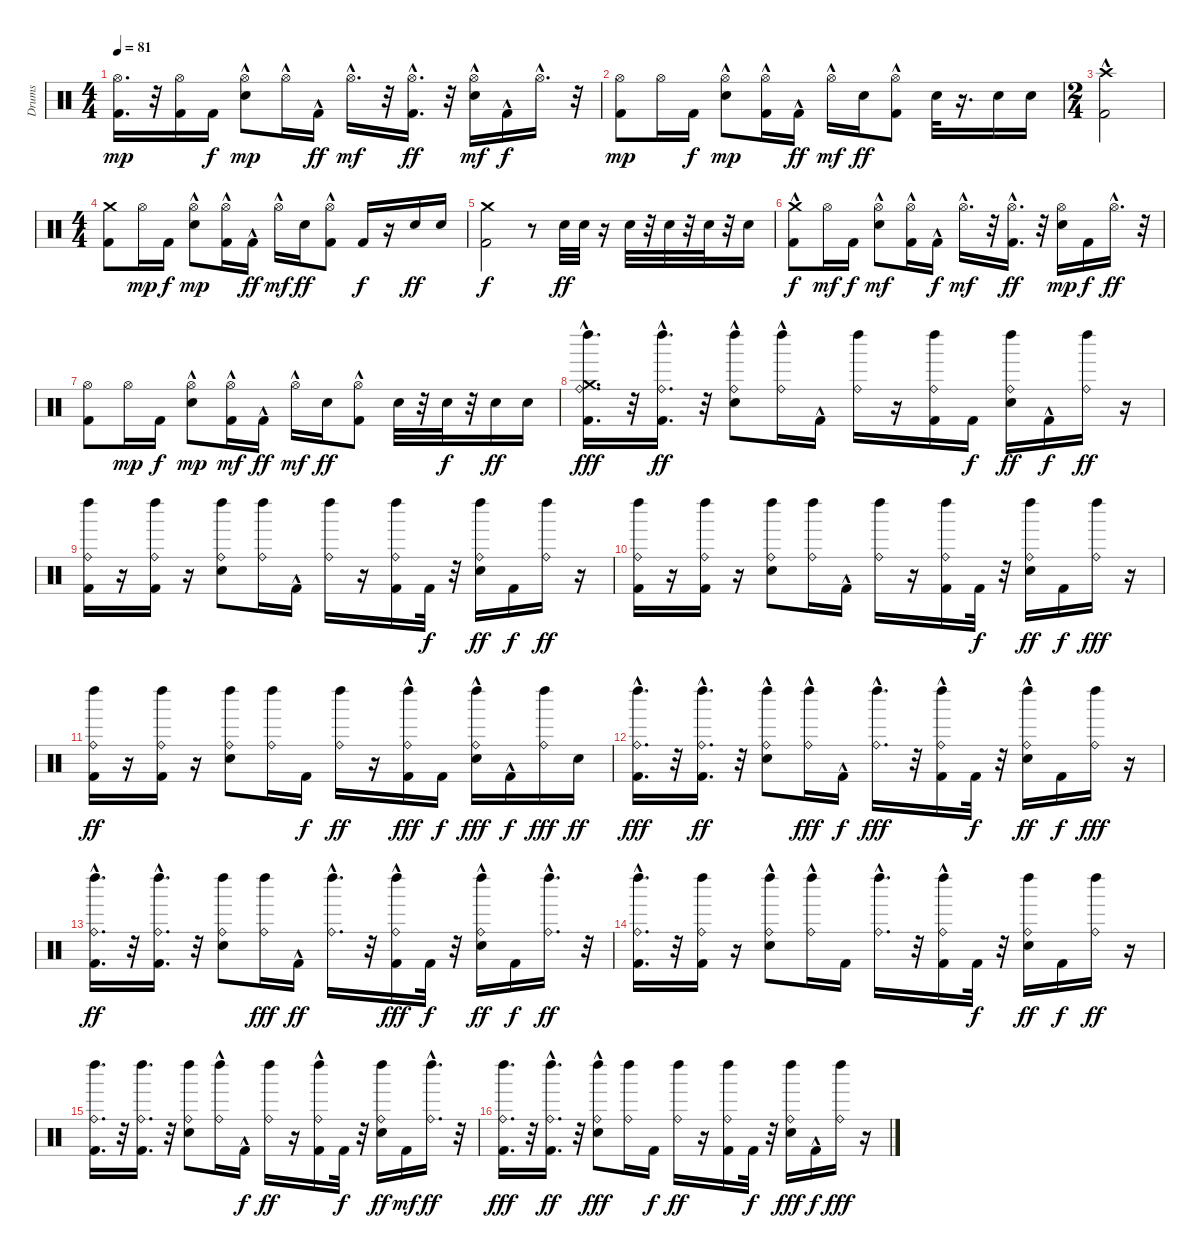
\track ("Drums" "Drums") {instrument percussion}
\staff {score}
\articulation defaults
\ts (4 4)
\tempo 81
\clef neutral
\ks c
("Kick (hit) 2" "Hi-Hat (open)").16{d dy mp} r.32 ("Kick (hit) 2" "Hi-Hat (open)").16 "Kick (hit) 2".16{dy f} ("Electric Snare (hit)" "Hi-Hat (open)"{hac}).8{dy mp} "Hi-Hat (open)"{hac}.16 "Kick (hit) 2"{hac}.16{dy ff} "Hi-Hat (open)"{hac}.16{d dy mf} r.32 ("Kick (hit) 2"{hac} "Hi-Hat (open)"{hac}).16{d dy ff} r.32 ("Electric Snare (hit)" "Hi-Hat (open)"{hac}).16{dy mf} "Kick (hit) 2"{hac}.16{dy f} "Hi-Hat (open)"{hac}.16{d} r.32 |
("Kick (hit) 2" "Hi-Hat (open)").8{dy mp} "Hi-Hat (open)".16 "Kick (hit) 2".16{dy f} ("Electric Snare (hit)" "Hi-Hat (open)"{hac}).8{dy mp} ("Kick (hit) 2" "Hi-Hat (open)"{hac}).16 "Kick (hit) 2"{hac}.16{dy ff} "Hi-Hat (open)"{hac}.16{dy mf} "Electric Snare (hit)".16{dy ff} ("Kick (hit) 2" "Hi-Hat (open)"{hac}).8 "Electric Snare (hit)".32 r.16{d} "Electric Snare (hit)".16 "Electric Snare (hit)".16 |
\ts (2 4)
("Kick (hit) 2"{hac} "Crash high (hit)"{hac}).2 |
\ts (4 4)
("Kick (hit) 2" "Crash medium (hit)").8 "Hi-Hat (open)".16{dy mp} "Kick (hit) 2".16{dy f} ("Electric Snare (hit)" "Hi-Hat (open)"{hac}).8{dy mp} ("Kick (hit) 2" "Hi-Hat (open)"{hac}).16 "Kick (hit) 2"{hac}.16{dy ff} "Hi-Hat (open)"{hac}.16{dy mf} "Electric Snare (hit)".16{dy ff} ("Kick (hit) 2" "Hi-Hat (open)"{hac}).8 "Kick (hit) 2".16{dy f} r.16 "Electric Snare (hit)".16{dy ff} "Electric Snare (hit)".16 |
("Kick (hit) 2" "Crash medium (hit)").2{dy f} r.8 "Electric Snare (hit)".32{dy ff} "Electric Snare (hit)".32 r.16 "Electric Snare (hit)".32 r.32 "Electric Snare (hit)".32 r.32 "Electric Snare (hit)".32 r.32 "Electric Snare (hit)".16 |
("Kick (hit) 2"{hac} "Crash medium (hit)").8{dy f} "Hi-Hat (open)".16{dy mf} "Kick (hit) 2".16{dy f} ("Electric Snare (hit)" "Hi-Hat (open)"{hac}).8{dy mf} ("Kick (hit) 2" "Hi-Hat (open)"{hac}).16 "Kick (hit) 2"{hac}.16{dy f} "Hi-Hat (open)"{hac}.16{d dy mf} r.32 ("Kick (hit) 2"{hac} "Hi-Hat (open)"{hac}).16{d dy ff} r.32 ("Electric Snare (hit)" "Hi-Hat (open)").16{dy mp} "Kick (hit) 2".16{dy f} "Hi-Hat (open)"{hac}.16{d dy ff} r.32 |
("Kick (hit) 2" "Hi-Hat (open)").8 "Hi-Hat (open)".16{dy mp} "Kick (hit) 2".16{dy f} ("Electric Snare (hit)" "Hi-Hat (open)"{hac}).8{dy mp} ("Kick (hit) 2" "Hi-Hat (open)"{hac}).16{dy mf} "Kick (hit) 2"{hac}.16{dy ff} "Hi-Hat (open)"{hac}.16{dy mf} "Electric Snare (hit)".16{dy ff} ("Kick (hit) 2" "Hi-Hat (open)"{hac}).8 "Electric Snare (hit)".32 r.32 "Electric Snare (hit)".32{dy f} r.32 "Electric Snare (hit)".16{dy ff} "Electric Snare (hit)".16 |
("Kick (hit) 2" "Crash medium (hit)"{hac} "Ride (bell)"{hac} "Left Maraca (hit)").16{d dy fff} r.32 ("Kick (hit) 2"{hac} "Left Maraca (hit)" "Ride (bell)"{hac}).16{d dy ff} r.32 ("Electric Snare (hit)" "Ride (bell)"{hac} "Left Maraca (hit)").8 ("Ride (bell)"{hac} "Left Maraca (hit)").16 "Kick (hit) 2"{hac}.16 ("Ride (bell)" "Left Maraca (hit)").16 r.16 ("Kick (hit) 2" "Ride (bell)" "Left Maraca (hit)").16 "Kick (hit) 2".16{dy f} ("Electric Snare (hit)" "Left Maraca (hit)" "Ride (bell)").16{dy ff} "Kick (hit) 2"{hac}.16{dy f} ("Left Maraca (hit)" "Ride (bell)").16{dy ff} r.16 |
("Kick (hit) 2" "Ride (bell)" "Left Maraca (hit)").16 r.16 ("Kick (hit) 2" "Left Maraca (hit)" "Ride (bell)").16 r.16 ("Electric Snare (hit)" "Left Maraca (hit)" "Ride (bell)").8 ("Left Maraca (hit)" "Ride (bell)").16 "Kick (hit) 2"{hac}.16 ("Left Maraca (hit)" "Ride (bell)").16 r.16 ("Kick (hit) 2" "Left Maraca (hit)" "Ride (bell)").16 "Kick (hit) 2".32{dy f} r.32 ("Electric Snare (hit)" "Left Maraca (hit)" "Ride (bell)").16{dy ff} "Kick (hit) 2".16{dy f} ("Left Maraca (hit)" "Ride (bell)").16{dy ff} r.16 |
("Kick (hit) 2" "Ride (bell)" "Left Maraca (hit)").16 r.16 ("Kick (hit) 2" "Left Maraca (hit)" "Ride (bell)").16 r.16 ("Electric Snare (hit)" "Left Maraca (hit)" "Ride (bell)").8 ("Left Maraca (hit)" "Ride (bell)").16 "Kick (hit) 2"{hac}.16 ("Ride (bell)" "Left Maraca (hit)").16 r.16 ("Kick (hit) 2" "Left Maraca (hit)" "Ride (bell)").16 "Kick (hit) 2".32{dy f} r.32 ("Electric Snare (hit)" "Ride (bell)" "Left Maraca (hit)").16{dy ff} "Kick (hit) 2".16{dy f} ("Left Maraca (hit)" "Ride (bell)").16{dy fff} r.16 |
("Kick (hit) 2" "Ride (bell)" "Left Maraca (hit)").16{dy ff} r.16 ("Kick (hit) 2" "Left Maraca (hit)" "Ride (bell)").16 r.16 ("Electric Snare (hit)" "Ride (bell)" "Left Maraca (hit)").8 ("Ride (bell)" "Left Maraca (hit)").16 "Kick (hit) 2".16{dy f} ("Left Maraca (hit)" "Ride (bell)").16{dy ff} r.16 ("Kick (hit) 2" "Left Maraca (hit)" "Ride (bell)"{hac}).16{dy fff} "Kick (hit) 2".16{dy f} ("Electric Snare (hit)" "Ride (bell)"{hac} "Left Maraca (hit)").16{dy fff} "Kick (hit) 2"{hac}.16{dy f} ("Left Maraca (hit)" "Ride (bell)").16{dy fff} "Electric Snare (hit)".16{dy ff} |
("Kick (hit) 2"{hac} "Ride (bell)"{hac} "Left Maraca (hit)").16{d dy fff} r.32 ("Kick (hit) 2" "Left Maraca (hit)" "Ride (bell)"{hac}).16{d dy ff} r.32 ("Electric Snare (hit)" "Left Maraca (hit)" "Ride (bell)"{hac}).8 ("Left Maraca (hit)" "Ride (bell)"{hac}).16{dy fff} "Kick (hit) 2"{hac}.16{dy f} ("Left Maraca (hit)" "Ride (bell)"{hac}).16{d dy fff} r.32 ("Kick (hit) 2" "Left Maraca (hit)" "Ride (bell)"{hac}).16 "Kick (hit) 2".32{dy f} r.32 ("Electric Snare (hit)" "Left Maraca (hit)" "Ride (bell)"{hac}).16{dy ff} "Kick (hit) 2".16{dy f} ("Ride (bell)" "Left Maraca (hit)").16{dy fff} r.16 |
("Kick (hit) 2" "Ride (bell)"{hac} "Left Maraca (hit)").16{d dy ff} r.32 ("Kick (hit) 2" "Ride (bell)"{hac} "Left Maraca (hit)").16{d} r.32 ("Electric Snare (hit)" "Left Maraca (hit)" "Ride (bell)").8 ("Ride (bell)" "Left Maraca (hit)").16{dy fff} "Kick (hit) 2"{hac}.16{dy ff} ("Left Maraca (hit)" "Ride (bell)"{hac}).16{d} r.32 ("Kick (hit) 2" "Left Maraca (hit)" "Ride (bell)"{hac}).16{dy fff} "Kick (hit) 2".32{dy f} r.32 ("Electric Snare (hit)" "Left Maraca (hit)" "Ride (bell)"{hac}).16{dy ff} "Kick (hit) 2".16{dy f} ("Left Maraca (hit)" "Ride (bell)"{hac}).16{d dy ff} r.32 |
("Kick (hit) 2" "Ride (bell)"{hac} "Left Maraca (hit)").16{d} r.32 ("Kick (hit) 2" "Left Maraca (hit)" "Ride (bell)").16 r.16 ("Electric Snare (hit)" "Left Maraca (hit)" "Ride (bell)"{hac}).8 ("Left Maraca (hit)" "Ride (bell)"{hac}).16 "Kick (hit) 2".16 ("Left Maraca (hit)" "Ride (bell)"{hac}).16{d} r.32 ("Kick (hit) 2" "Ride (bell)"{hac} "Left Maraca (hit)").16 "Kick (hit) 2".32{dy f} r.32 ("Electric Snare (hit)" "Ride (bell)" "Left Maraca (hit)").16{dy ff} "Kick (hit) 2".16{dy f} ("Left Maraca (hit)" "Ride (bell)").16{dy ff} r.16 |
("Kick (hit) 2" "Ride (bell)" "Left Maraca (hit)").16{d} r.32 ("Kick (hit) 2" "Left Maraca (hit)" "Ride (bell)").16{d} r.32 ("Electric Snare (hit)" "Left Maraca (hit)" "Ride (bell)").8 ("Left Maraca (hit)" "Ride (bell)"{hac}).16 "Kick (hit) 2"{hac}.16{dy f} ("Left Maraca (hit)" "Ride (bell)").16{dy ff} r.16 ("Kick (hit) 2" "Ride (bell)"{hac} "Left Maraca (hit)").16 "Kick (hit) 2".32{dy f} r.32 ("Electric Snare (hit)" "Left Maraca (hit)" "Ride (bell)").16{dy ff} "Kick (hit) 2".16{dy mf} ("Left Maraca (hit)" "Ride (bell)"{hac}).16{d dy ff} r.32 |
("Kick (hit) 2" "Ride (bell)" "Left Maraca (hit)").16{d dy fff} r.32 ("Kick (hit) 2" "Left Maraca (hit)" "Ride (bell)"{hac}).16{d dy ff} r.32 ("Electric Snare (hit)" "Left Maraca (hit)" "Ride (bell)"{hac}).8{dy fff} ("Ride (bell)" "Left Maraca (hit)").16 "Kick (hit) 2".16{dy f} ("Left Maraca (hit)" "Ride (bell)").16{dy ff} r.16 ("Kick (hit) 2" "Left Maraca (hit)" "Ride (bell)").16 "Kick (hit) 2".32{dy f} r.32 ("Electric Snare (hit)" "Left Maraca (hit)" "Ride (bell)").16{dy fff} "Kick (hit) 2"{hac}.16{dy f} ("Left Maraca (hit)" "Ride (bell)").16{dy fff} r.16
